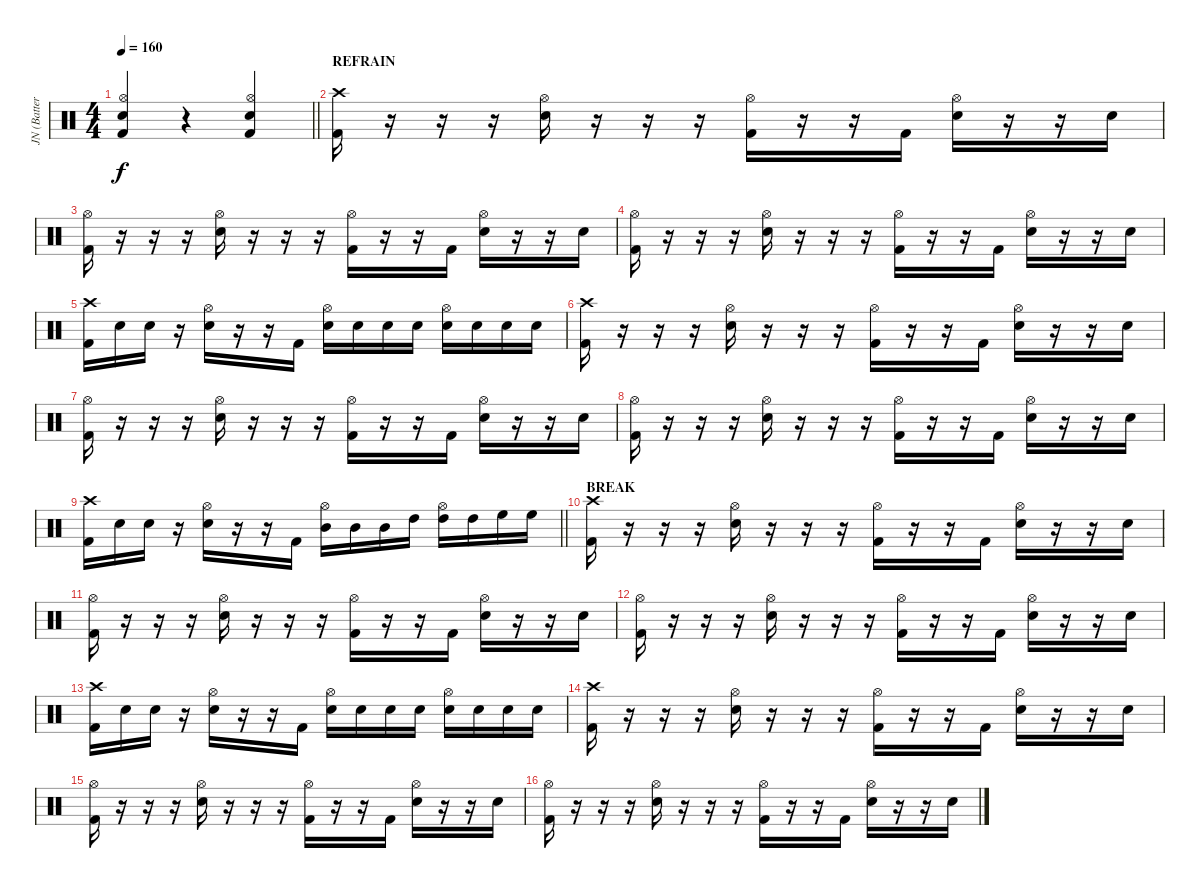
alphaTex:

\track ("JN (Batterie)" "JN (Batter") {instrument percussion}
\staff {score}
\articulation defaults
\ts (4 4)
\tempo 160
\clef neutral
\barLineRight lightlight
\ks c
("Electric Snare (hit)" "Hi-Hat (open)" "Kick (hit) 2").4{dy f} r.4 ("Electric Snare (hit)" "Hi-Hat (open)" "Kick (hit) 2").4 |
\section ("" "REFRAIN")
("Crash high (hit)" "Kick (hit) 2").16 r.16 r.16 r.16 ("Hi-Hat (open)" "Electric Snare (hit)").16 r.16 r.16 r.16 ("Hi-Hat (open)" "Kick (hit) 2").16 r.16 r.16 "Kick (hit) 2".16 ("Hi-Hat (open)" "Electric Snare (hit)").16 r.16 r.16 "Electric Snare (hit)".16 |
("Hi-Hat (open)" "Kick (hit) 2").16 r.16 r.16 r.16 ("Hi-Hat (open)" "Electric Snare (hit)").16 r.16 r.16 r.16 ("Hi-Hat (open)" "Kick (hit) 2").16 r.16 r.16 "Kick (hit) 2".16 ("Hi-Hat (open)" "Electric Snare (hit)").16 r.16 r.16 "Electric Snare (hit)".16 |
("Hi-Hat (open)" "Kick (hit) 2").16 r.16 r.16 r.16 ("Hi-Hat (open)" "Electric Snare (hit)").16 r.16 r.16 r.16 ("Hi-Hat (open)" "Kick (hit) 2").16 r.16 r.16 "Kick (hit) 2".16 ("Hi-Hat (open)" "Electric Snare (hit)").16 r.16 r.16 "Electric Snare (hit)".16 |
("Crash high (hit)" "Kick (hit) 2").16 "Electric Snare (hit)".16 "Electric Snare (hit)".16 r.16 ("Hi-Hat (open)" "Electric Snare (hit)").16 r.16 r.16 "Kick (hit) 2".16 ("Hi-Hat (open)" "Electric Snare (hit)").16 "Electric Snare (hit)".16 "Electric Snare (hit)".16 "Electric Snare (hit)".16 ("Hi-Hat (open)" "Snare (hit) 2").16 "Electric Snare (hit)".16 "Electric Snare (hit)".16 "Electric Snare (hit)".16 |
("Crash high (hit)" "Kick (hit) 2").16 r.16 r.16 r.16 ("Hi-Hat (open)" "Electric Snare (hit)").16 r.16 r.16 r.16 ("Hi-Hat (open)" "Kick (hit) 2").16 r.16 r.16 "Kick (hit) 2".16 ("Hi-Hat (open)" "Electric Snare (hit)").16 r.16 r.16 "Electric Snare (hit)".16 |
("Hi-Hat (open)" "Kick (hit) 2").16 r.16 r.16 r.16 ("Hi-Hat (open)" "Electric Snare (hit)").16 r.16 r.16 r.16 ("Hi-Hat (open)" "Kick (hit) 2").16 r.16 r.16 "Kick (hit) 2".16 ("Hi-Hat (open)" "Electric Snare (hit)").16 r.16 r.16 "Electric Snare (hit)".16 |
("Hi-Hat (open)" "Kick (hit) 2").16 r.16 r.16 r.16 ("Hi-Hat (open)" "Electric Snare (hit)").16 r.16 r.16 r.16 ("Hi-Hat (open)" "Kick (hit) 2").16 r.16 r.16 "Kick (hit) 2".16 ("Hi-Hat (open)" "Electric Snare (hit)").16 r.16 r.16 "Electric Snare (hit)".16 |
\barLineRight lightlight
("Crash high (hit)" "Kick (hit) 2").16 "Electric Snare (hit)".16 "Electric Snare (hit)".16 r.16 ("Hi-Hat (open)" "Electric Snare (hit)").16 r.16 r.16 "Kick (hit) 2".16 ("Hi-Hat (open)" "Mid Tom (hit)").16 "Mid Tom (hit)".16 "Mid Tom (hit)".16 "High Tom (hit)".16 ("Hi-Hat (open)" "High Tom (hit)").16 "High Tom (hit)".16 "High Floor Tom (hit)".16 "High Floor Tom (hit)".16 |
\section ("" "BREAK")
("Crash high (hit)" "Kick (hit) 2").16 r.16 r.16 r.16 ("Hi-Hat (open)" "Electric Snare (hit)").16 r.16 r.16 r.16 ("Hi-Hat (open)" "Kick (hit) 2").16 r.16 r.16 "Kick (hit) 2".16 ("Hi-Hat (open)" "Electric Snare (hit)").16 r.16 r.16 "Electric Snare (hit)".16 |
("Hi-Hat (open)" "Kick (hit) 2").16 r.16 r.16 r.16 ("Hi-Hat (open)" "Electric Snare (hit)").16 r.16 r.16 r.16 ("Hi-Hat (open)" "Kick (hit) 2").16 r.16 r.16 "Kick (hit) 2".16 ("Hi-Hat (open)" "Electric Snare (hit)").16 r.16 r.16 "Electric Snare (hit)".16 |
("Hi-Hat (open)" "Kick (hit) 2").16 r.16 r.16 r.16 ("Hi-Hat (open)" "Electric Snare (hit)").16 r.16 r.16 r.16 ("Hi-Hat (open)" "Kick (hit) 2").16 r.16 r.16 "Kick (hit) 2".16 ("Hi-Hat (open)" "Electric Snare (hit)").16 r.16 r.16 "Electric Snare (hit)".16 |
("Crash high (hit)" "Kick (hit) 2").16 "Electric Snare (hit)".16 "Electric Snare (hit)".16 r.16 ("Hi-Hat (open)" "Electric Snare (hit)").16 r.16 r.16 "Kick (hit) 2".16 ("Hi-Hat (open)" "Electric Snare (hit)").16 "Electric Snare (hit)".16 "Electric Snare (hit)".16 "Electric Snare (hit)".16 ("Hi-Hat (open)" "Snare (hit) 2").16 "Electric Snare (hit)".16 "Electric Snare (hit)".16 "Electric Snare (hit)".16 |
("Crash high (hit)" "Kick (hit) 2").16 r.16 r.16 r.16 ("Hi-Hat (open)" "Electric Snare (hit)").16 r.16 r.16 r.16 ("Hi-Hat (open)" "Kick (hit) 2").16 r.16 r.16 "Kick (hit) 2".16 ("Hi-Hat (open)" "Electric Snare (hit)").16 r.16 r.16 "Electric Snare (hit)".16 |
("Hi-Hat (open)" "Kick (hit) 2").16 r.16 r.16 r.16 ("Hi-Hat (open)" "Electric Snare (hit)").16 r.16 r.16 r.16 ("Hi-Hat (open)" "Kick (hit) 2").16 r.16 r.16 "Kick (hit) 2".16 ("Hi-Hat (open)" "Electric Snare (hit)").16 r.16 r.16 "Electric Snare (hit)".16 |
("Hi-Hat (open)" "Kick (hit) 2").16 r.16 r.16 r.16 ("Hi-Hat (open)" "Electric Snare (hit)").16 r.16 r.16 r.16 ("Hi-Hat (open)" "Kick (hit) 2").16 r.16 r.16 "Kick (hit) 2".16 ("Hi-Hat (open)" "Electric Snare (hit)").16 r.16 r.16 "Electric Snare (hit)".16
